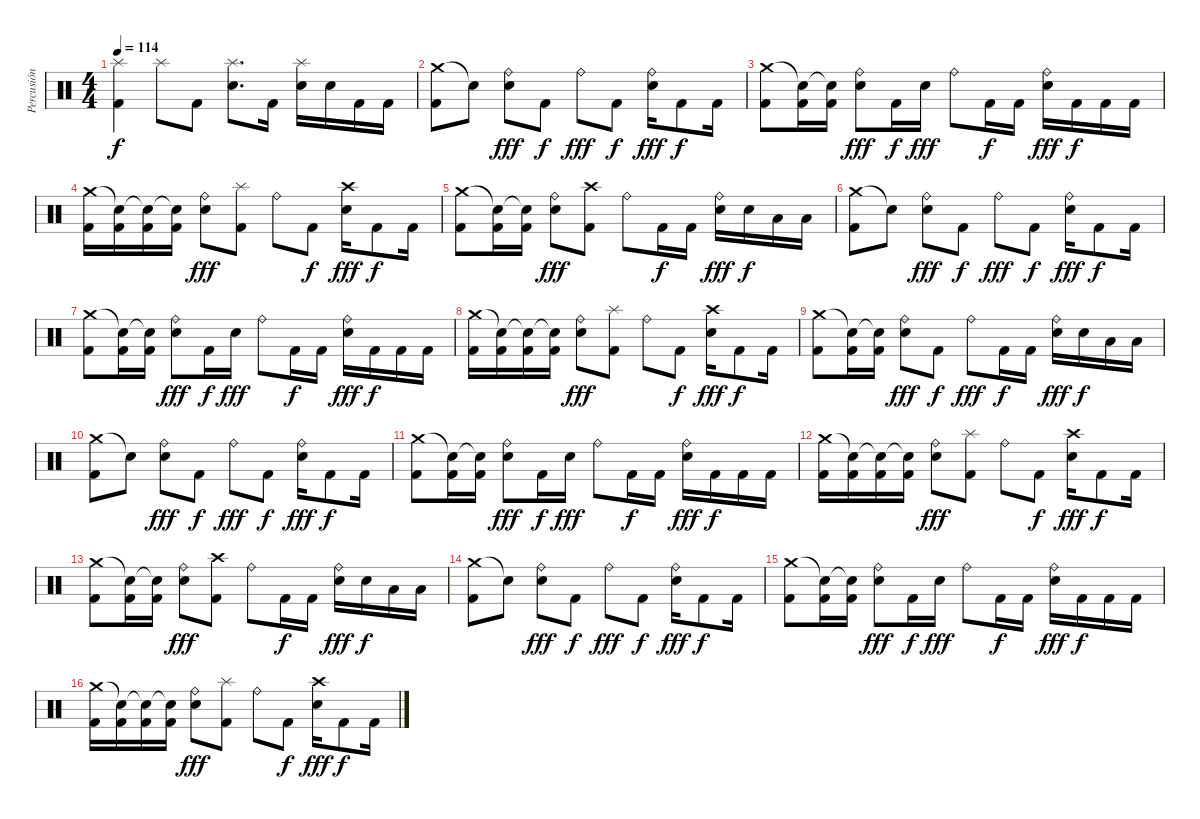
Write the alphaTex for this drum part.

\track ("Percusión" "Percusión") {instrument percussion}
\staff {score}
\articulation defaults
\ts (4 4)
\tempo 114
\clef neutral
\ks c
("Splash (hit)" "Kick (hit) 2").4{dy f} "Splash (hit)".8 "Kick (hit) 2".8 ("Splash (hit)" "Electric Snare (hit)").8{d} "Kick (hit) 2".16 ("Splash (hit)" "Electric Snare (hit)").16 "Electric Snare (hit)".16 "Kick (hit) 2".16 "Kick (hit) 2".16 |
("Crash medium (hit)" "Kick (hit) 2").8 "Snare (hit)"{t}.8 ("Ride (bell)" "Snare (hit) 2").8{dy fff} "Kick (hit) 2".8{dy f} "Ride (bell)".8{dy fff} "Kick (hit) 2".8{dy f} ("Ride (bell)" "Snare (hit) 2").16{dy fff} "Kick (hit) 2".8{dy f} "Kick (hit) 2".16 |
("Crash medium (hit)" "Kick (hit) 2").8 ("Snare (hit)"{t} "Kick (hit) 2").16 ("Snare (hit)"{t} "Kick (hit) 2").16 ("Ride (bell)" "Snare (hit) 2").8{dy fff} "Kick (hit) 2".16{dy f} "Snare (hit) 2".16{dy fff} "Ride (bell)".8 "Kick (hit) 2".16{dy f} "Kick (hit) 2".16 ("Ride (bell)" "Snare (hit) 2").16{dy fff} "Kick (hit) 2".16{dy f} "Kick (hit) 2".16 "Kick (hit) 2".16 |
("Crash medium (hit)" "Kick (hit) 2").16 ("Snare (hit)"{t} "Kick (hit) 2").16 ("Snare (hit)"{t} "Kick (hit) 2").16 ("Snare (hit)"{t} "Kick (hit) 2").16 ("Ride (bell)" "Snare (hit) 2").8{dy fff} ("Splash (hit)" "Kick (hit) 2").8 "Ride (bell)".8 "Kick (hit) 2".8{dy f} ("Crash high (hit)" "Snare (hit) 2").16{dy fff} "Kick (hit) 2".8{dy f} "Kick (hit) 2".16 |
("Crash medium (hit)" "Kick (hit) 2").8 ("Snare (hit)"{t} "Kick (hit) 2").16 ("Snare (hit)"{t} "Kick (hit) 2").16 ("Ride (bell)" "Snare (hit) 2").8{dy fff} ("Crash high (hit)" "Kick (hit) 2").8 "Ride (bell)".8 "Kick (hit) 2".16{dy f} "Kick (hit) 2".16 ("Ride (bell)" "Snare (hit) 2").16{dy fff} "Snare (hit) 2".16{dy f} "Low Floor Tom (hit)".16 "Low Floor Tom (hit)".16 |
("Crash medium (hit)" "Kick (hit) 2").8 "Snare (hit)"{t}.8 ("Ride (bell)" "Snare (hit) 2").8{dy fff} "Kick (hit) 2".8{dy f} "Ride (bell)".8{dy fff} "Kick (hit) 2".8{dy f} ("Ride (bell)" "Snare (hit) 2").16{dy fff} "Kick (hit) 2".8{dy f} "Kick (hit) 2".16 |
("Crash medium (hit)" "Kick (hit) 2").8 ("Snare (hit)"{t} "Kick (hit) 2").16 ("Snare (hit)"{t} "Kick (hit) 2").16 ("Ride (bell)" "Snare (hit) 2").8{dy fff} "Kick (hit) 2".16{dy f} "Snare (hit) 2".16{dy fff} "Ride (bell)".8 "Kick (hit) 2".16{dy f} "Kick (hit) 2".16 ("Ride (bell)" "Snare (hit) 2").16{dy fff} "Kick (hit) 2".16{dy f} "Kick (hit) 2".16 "Kick (hit) 2".16 |
("Crash medium (hit)" "Kick (hit) 2").16 ("Snare (hit)"{t} "Kick (hit) 2").16 ("Snare (hit)"{t} "Kick (hit) 2").16 ("Snare (hit)"{t} "Kick (hit) 2").16 ("Ride (bell)" "Snare (hit) 2").8{dy fff} ("Splash (hit)" "Kick (hit) 2").8 "Ride (bell)".8 "Kick (hit) 2".8{dy f} ("Crash high (hit)" "Snare (hit) 2").16{dy fff} "Kick (hit) 2".8{dy f} "Kick (hit) 2".16 |
("Crash medium (hit)" "Kick (hit) 2").8 ("Snare (hit)"{t} "Kick (hit) 2").16 ("Snare (hit)"{t} "Kick (hit) 2").16 ("Ride (bell)" "Snare (hit) 2").8{dy fff} "Kick (hit) 2".8{dy f} "Ride (bell)".8{dy fff} "Kick (hit) 2".16{dy f} "Kick (hit) 2".16 ("Ride (bell)" "Snare (hit) 2").16{dy fff} "Snare (hit) 2".16{dy f} "Low Floor Tom (hit)".16 "Low Floor Tom (hit)".16 |
("Crash medium (hit)" "Kick (hit) 2").8 "Snare (hit)"{t}.8 ("Ride (bell)" "Snare (hit) 2").8{dy fff} "Kick (hit) 2".8{dy f} "Ride (bell)".8{dy fff} "Kick (hit) 2".8{dy f} ("Ride (bell)" "Snare (hit) 2").16{dy fff} "Kick (hit) 2".8{dy f} "Kick (hit) 2".16 |
("Crash medium (hit)" "Kick (hit) 2").8 ("Snare (hit)"{t} "Kick (hit) 2").16 ("Snare (hit)"{t} "Kick (hit) 2").16 ("Ride (bell)" "Snare (hit) 2").8{dy fff} "Kick (hit) 2".16{dy f} "Snare (hit) 2".16{dy fff} "Ride (bell)".8 "Kick (hit) 2".16{dy f} "Kick (hit) 2".16 ("Ride (bell)" "Snare (hit) 2").16{dy fff} "Kick (hit) 2".16{dy f} "Kick (hit) 2".16 "Kick (hit) 2".16 |
("Crash medium (hit)" "Kick (hit) 2").16 ("Snare (hit)"{t} "Kick (hit) 2").16 ("Snare (hit)"{t} "Kick (hit) 2").16 ("Snare (hit)"{t} "Kick (hit) 2").16 ("Ride (bell)" "Snare (hit) 2").8{dy fff} ("Splash (hit)" "Kick (hit) 2").8 "Ride (bell)".8 "Kick (hit) 2".8{dy f} ("Crash high (hit)" "Snare (hit) 2").16{dy fff} "Kick (hit) 2".8{dy f} "Kick (hit) 2".16 |
("Crash medium (hit)" "Kick (hit) 2").8 ("Snare (hit)"{t} "Kick (hit) 2").16 ("Snare (hit)"{t} "Kick (hit) 2").16 ("Ride (bell)" "Snare (hit) 2").8{dy fff} ("Crash high (hit)" "Kick (hit) 2").8 "Ride (bell)".8 "Kick (hit) 2".16{dy f} "Kick (hit) 2".16 ("Ride (bell)" "Snare (hit) 2").16{dy fff} "Snare (hit) 2".16{dy f} "Low Floor Tom (hit)".16 "Low Floor Tom (hit)".16 |
("Crash medium (hit)" "Kick (hit) 2").8 "Snare (hit)"{t}.8 ("Ride (bell)" "Snare (hit) 2").8{dy fff} "Kick (hit) 2".8{dy f} "Ride (bell)".8{dy fff} "Kick (hit) 2".8{dy f} ("Ride (bell)" "Snare (hit) 2").16{dy fff} "Kick (hit) 2".8{dy f} "Kick (hit) 2".16 |
("Crash medium (hit)" "Kick (hit) 2").8 ("Snare (hit)"{t} "Kick (hit) 2").16 ("Snare (hit)"{t} "Kick (hit) 2").16 ("Ride (bell)" "Snare (hit) 2").8{dy fff} "Kick (hit) 2".16{dy f} "Snare (hit) 2".16{dy fff} "Ride (bell)".8 "Kick (hit) 2".16{dy f} "Kick (hit) 2".16 ("Ride (bell)" "Snare (hit) 2").16{dy fff} "Kick (hit) 2".16{dy f} "Kick (hit) 2".16 "Kick (hit) 2".16 |
("Crash medium (hit)" "Kick (hit) 2").16 ("Snare (hit)"{t} "Kick (hit) 2").16 ("Snare (hit)"{t} "Kick (hit) 2").16 ("Snare (hit)"{t} "Kick (hit) 2").16 ("Ride (bell)" "Snare (hit) 2").8{dy fff} ("Splash (hit)" "Kick (hit) 2").8 "Ride (bell)".8 "Kick (hit) 2".8{dy f} ("Crash high (hit)" "Snare (hit) 2").16{dy fff} "Kick (hit) 2".8{dy f} "Kick (hit) 2".16
